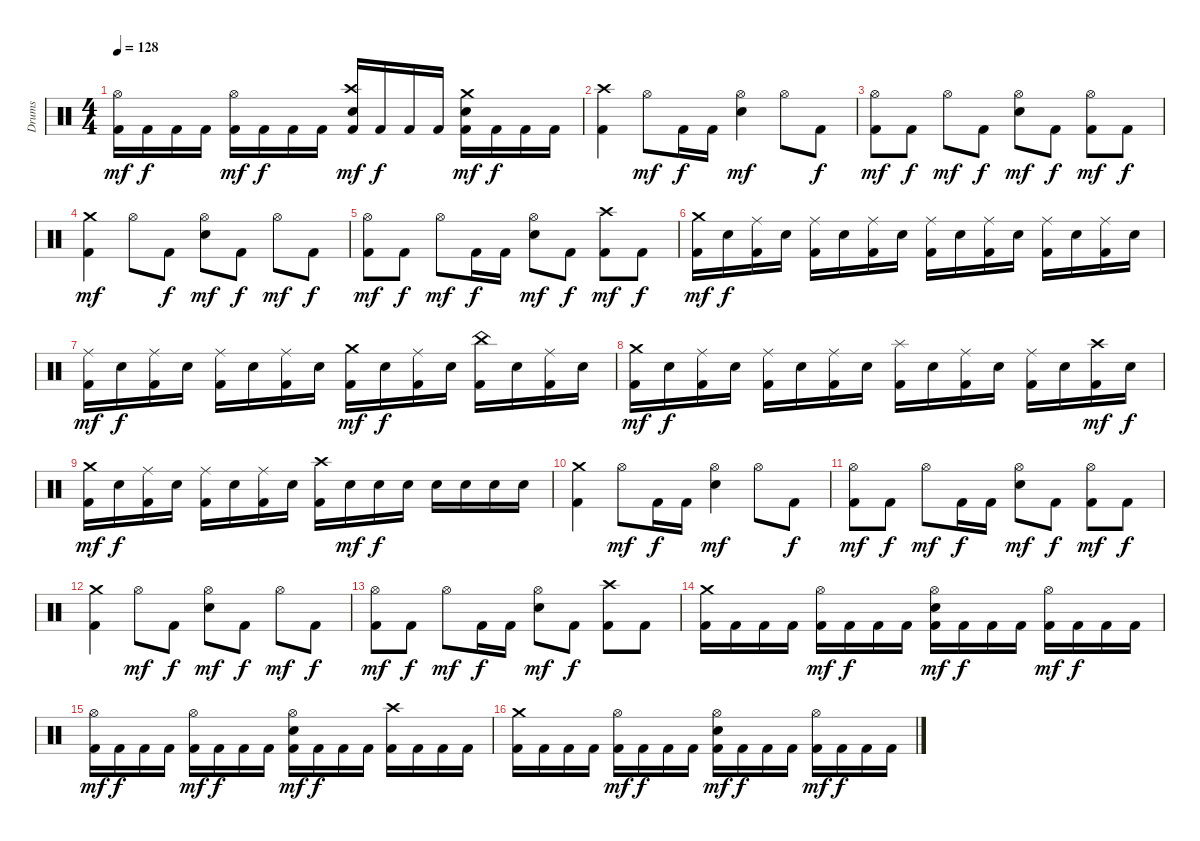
\track ("Drums" "Drums") {instrument percussion}
\staff {score}
\articulation defaults
\ts (4 4)
\tempo 128
\clef neutral
\ks c
("Hi-Hat (open)" "Kick (hit) 2").16{dy mf} "Kick (hit) 2".16{dy f} "Kick (hit) 2".16 "Kick (hit) 2".16 ("Hi-Hat (open)" "Kick (hit) 2").16{dy mf} "Kick (hit) 2".16{dy f} "Kick (hit) 2".16 "Kick (hit) 2".16 ("Crash high (hit)" "Electric Snare (hit)" "Kick (hit) 2").16{dy mf} "Kick (hit) 2".16{dy f} "Kick (hit) 2".16 "Kick (hit) 2".16 ("Crash medium (hit)" "Electric Snare (hit)" "Kick (hit) 2").16{dy mf} "Kick (hit) 2".16{dy f} "Kick (hit) 2".16 "Kick (hit) 2".16 |
("Crash high (hit)" "Kick (hit) 2").4 "Hi-Hat (open)".8{dy mf} "Kick (hit) 2".16{dy f} "Kick (hit) 2".16 ("Hi-Hat (open)" "Electric Snare (hit)").4{dy mf} "Hi-Hat (open)".8 "Kick (hit) 2".8{dy f} |
("Hi-Hat (open)" "Kick (hit) 2").8{dy mf} "Kick (hit) 2".8{dy f} "Hi-Hat (open)".8{dy mf} "Kick (hit) 2".8{dy f} ("Hi-Hat (open)" "Electric Snare (hit)").8{dy mf} "Kick (hit) 2".8{dy f} ("Hi-Hat (open)" "Kick (hit) 2").8{dy mf} "Kick (hit) 2".8{dy f} |
("Crash medium (hit)" "Kick (hit) 2").4{dy mf} "Hi-Hat (open)".8 "Kick (hit) 2".8{dy f} ("Hi-Hat (open)" "Electric Snare (hit)").8{dy mf} "Kick (hit) 2".8{dy f} "Hi-Hat (open)".8{dy mf} "Kick (hit) 2".8{dy f} |
("Hi-Hat (open)" "Kick (hit) 2").8{dy mf} "Kick (hit) 2".8{dy f} "Hi-Hat (open)".8{dy mf} "Kick (hit) 2".16{dy f} "Kick (hit) 2".16 ("Hi-Hat (open)" "Electric Snare (hit)").8{dy mf} "Kick (hit) 2".8{dy f} ("Crash high (hit)" "Kick (hit) 2").8{dy mf} "Kick (hit) 2".8{dy f} |
("Crash medium (hit)" "Kick (hit) 2").16{dy mf} "Electric Snare (hit)".16{dy f} ("Ride (middle)" "Kick (hit) 2").16 "Electric Snare (hit)".16 ("Ride (middle)" "Kick (hit) 2").16 "Electric Snare (hit)".16 ("Ride (middle)" "Kick (hit) 2").16 "Electric Snare (hit)".16 ("Ride (middle)" "Kick (hit) 2").16 "Electric Snare (hit)".16 ("Ride (middle)" "Kick (hit) 2").16 "Electric Snare (hit)".16 ("Ride (middle)" "Kick (hit) 2").16 "Electric Snare (hit)".16 ("Ride (middle)" "Kick (hit) 2").16 "Electric Snare (hit)".16 |
("Ride (middle)" "Kick (hit) 2").16{dy mf} "Electric Snare (hit)".16{dy f} ("Ride (middle)" "Kick (hit) 2").16 "Electric Snare (hit)".16 ("Ride (middle)" "Kick (hit) 2").16 "Electric Snare (hit)".16 ("Ride (middle)" "Kick (hit) 2").16 "Electric Snare (hit)".16 ("Crash medium (hit)" "Kick (hit) 2").16{dy mf} "Electric Snare (hit)".16{dy f} ("Ride (middle)" "Kick (hit) 2").16 "Electric Snare (hit)".16 ("China (hit)" "Kick (hit) 2").16 "Electric Snare (hit)".16 ("Ride (middle)" "Kick (hit) 2").16 "Electric Snare (hit)".16 |
("Crash medium (hit)" "Kick (hit) 2").16{dy mf} "Electric Snare (hit)".16{dy f} ("Ride (middle)" "Kick (hit) 2").16 "Electric Snare (hit)".16 ("Ride (middle)" "Kick (hit) 2").16 "Electric Snare (hit)".16 ("Ride (middle)" "Kick (hit) 2").16 "Electric Snare (hit)".16 ("Splash (hit)" "Kick (hit) 2").16 "Electric Snare (hit)".16 ("Ride (middle)" "Kick (hit) 2").16 "Electric Snare (hit)".16 ("Ride (middle)" "Kick (hit) 2").16 "Electric Snare (hit)".16 ("Crash high (hit)" "Kick (hit) 2").16{dy mf} "Electric Snare (hit)".16{dy f} |
("Crash medium (hit)" "Kick (hit) 2").16{dy mf} "Electric Snare (hit)".16{dy f} ("Ride (middle)" "Kick (hit) 2").16 "Electric Snare (hit)".16 ("Ride (middle)" "Kick (hit) 2").16 "Electric Snare (hit)".16 ("Ride (middle)" "Kick (hit) 2").16 "Electric Snare (hit)".16 ("Crash high (hit)" "Kick (hit) 2").16 "Electric Snare (hit)".16{dy mf} "Electric Snare (hit)".16{dy f} "Electric Snare (hit)".16 "Electric Snare (hit)".16 "Electric Snare (hit)".16 "Electric Snare (hit)".16 "Electric Snare (hit)".16 |
("Crash medium (hit)" "Kick (hit) 2").4 "Hi-Hat (open)".8{dy mf} "Kick (hit) 2".16{dy f} "Kick (hit) 2".16 ("Hi-Hat (open)" "Electric Snare (hit)").4{dy mf} "Hi-Hat (open)".8 "Kick (hit) 2".8{dy f} |
("Hi-Hat (open)" "Kick (hit) 2").8{dy mf} "Kick (hit) 2".8{dy f} "Hi-Hat (open)".8{dy mf} "Kick (hit) 2".16{dy f} "Kick (hit) 2".16 ("Hi-Hat (open)" "Electric Snare (hit)").8{dy mf} "Kick (hit) 2".8{dy f} ("Hi-Hat (open)" "Kick (hit) 2").8{dy mf} "Kick (hit) 2".8{dy f} |
("Crash medium (hit)" "Kick (hit) 2").4 "Hi-Hat (open)".8{dy mf} "Kick (hit) 2".8{dy f} ("Hi-Hat (open)" "Electric Snare (hit)").8{dy mf} "Kick (hit) 2".8{dy f} "Hi-Hat (open)".8{dy mf} "Kick (hit) 2".8{dy f} |
("Hi-Hat (open)" "Kick (hit) 2").8{dy mf} "Kick (hit) 2".8{dy f} "Hi-Hat (open)".8{dy mf} "Kick (hit) 2".16{dy f} "Kick (hit) 2".16 ("Hi-Hat (open)" "Electric Snare (hit)").8{dy mf} "Kick (hit) 2".8{dy f} ("Crash high (hit)" "Kick (hit) 2").8 "Kick (hit) 2".8 |
("Crash medium (hit)" "Kick (hit) 2").16 "Kick (hit) 2".16 "Kick (hit) 2".16 "Kick (hit) 2".16 ("Hi-Hat (open)" "Kick (hit) 2").16{dy mf} "Kick (hit) 2".16{dy f} "Kick (hit) 2".16 "Kick (hit) 2".16 ("Hi-Hat (open)" "Electric Snare (hit)" "Kick (hit) 2").16{dy mf} "Kick (hit) 2".16{dy f} "Kick (hit) 2".16 "Kick (hit) 2".16 ("Hi-Hat (open)" "Kick (hit) 2").16{dy mf} "Kick (hit) 2".16{dy f} "Kick (hit) 2".16 "Kick (hit) 2".16 |
("Hi-Hat (open)" "Kick (hit) 2").16{dy mf} "Kick (hit) 2".16{dy f} "Kick (hit) 2".16 "Kick (hit) 2".16 ("Hi-Hat (open)" "Kick (hit) 2").16{dy mf} "Kick (hit) 2".16{dy f} "Kick (hit) 2".16 "Kick (hit) 2".16 ("Hi-Hat (open)" "Electric Snare (hit)" "Kick (hit) 2").16{dy mf} "Kick (hit) 2".16{dy f} "Kick (hit) 2".16 "Kick (hit) 2".16 ("Crash high (hit)" "Kick (hit) 2").16 "Kick (hit) 2".16 "Kick (hit) 2".16 "Kick (hit) 2".16 |
("Crash medium (hit)" "Kick (hit) 2").16 "Kick (hit) 2".16 "Kick (hit) 2".16 "Kick (hit) 2".16 ("Hi-Hat (open)" "Kick (hit) 2").16{dy mf} "Kick (hit) 2".16{dy f} "Kick (hit) 2".16 "Kick (hit) 2".16 ("Hi-Hat (open)" "Electric Snare (hit)" "Kick (hit) 2").16{dy mf} "Kick (hit) 2".16{dy f} "Kick (hit) 2".16 "Kick (hit) 2".16 ("Hi-Hat (open)" "Kick (hit) 2").16{dy mf} "Kick (hit) 2".16{dy f} "Kick (hit) 2".16 "Kick (hit) 2".16
